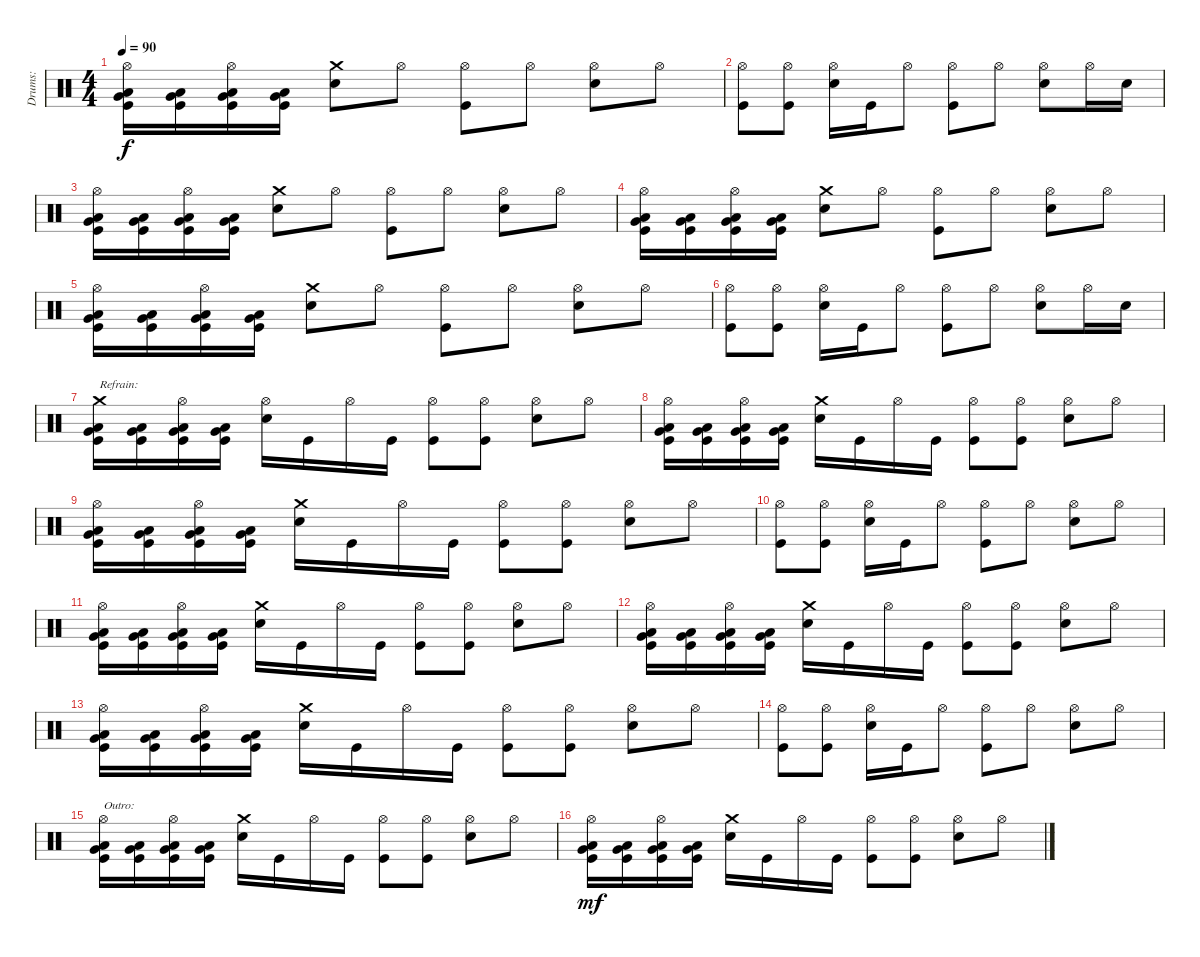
\track ("Drums:" "Drums:") {instrument percussion}
\staff {score}
\articulation defaults
\ts (4 4)
\tempo 90
\clef neutral
\ks c
("Hi-Hat (open)" "Very Low Tom (hit)" "Low Floor Tom (hit)" "Kick (hit)").16{dy f} ("Very Low Tom (hit)" "Low Floor Tom (hit)" "Kick (hit)").16 ("Hi-Hat (open)" "Very Low Tom (hit)" "Low Floor Tom (hit)" "Kick (hit)").16 ("Very Low Tom (hit)" "Low Floor Tom (hit)" "Kick (hit)").16 ("Crash medium (hit)" "Snare (hit) 2").8 "Hi-Hat (open)".8 ("Hi-Hat (open)" "Kick (hit)").8 "Hi-Hat (open)".8 ("Hi-Hat (open)" "Snare (hit) 2").8 "Hi-Hat (open)".8 |
("Hi-Hat (open)" "Kick (hit)").8 ("Hi-Hat (open)" "Kick (hit)").8 ("Hi-Hat (open)" "Snare (hit) 2").16 "Kick (hit)".16 "Hi-Hat (open)".8 ("Hi-Hat (open)" "Kick (hit)").8 "Hi-Hat (open)".8 ("Hi-Hat (open)" "Snare (hit) 2").8 "Hi-Hat (open)".16 "Snare (hit) 2".16 |
("Hi-Hat (open)" "Very Low Tom (hit)" "Low Floor Tom (hit)" "Kick (hit)").16 ("Very Low Tom (hit)" "Low Floor Tom (hit)" "Kick (hit)").16 ("Hi-Hat (open)" "Very Low Tom (hit)" "Low Floor Tom (hit)" "Kick (hit)").16 ("Very Low Tom (hit)" "Low Floor Tom (hit)" "Kick (hit)").16 ("Crash medium (hit)" "Snare (hit) 2").8 "Hi-Hat (open)".8 ("Hi-Hat (open)" "Kick (hit)").8 "Hi-Hat (open)".8 ("Hi-Hat (open)" "Snare (hit) 2").8 "Hi-Hat (open)".8 |
("Hi-Hat (open)" "Very Low Tom (hit)" "Low Floor Tom (hit)" "Kick (hit)").16 ("Very Low Tom (hit)" "Low Floor Tom (hit)" "Kick (hit)").16 ("Hi-Hat (open)" "Very Low Tom (hit)" "Low Floor Tom (hit)" "Kick (hit)").16 ("Very Low Tom (hit)" "Low Floor Tom (hit)" "Kick (hit)").16 ("Crash medium (hit)" "Snare (hit) 2").8 "Hi-Hat (open)".8 ("Hi-Hat (open)" "Kick (hit)").8 "Hi-Hat (open)".8 ("Hi-Hat (open)" "Snare (hit) 2").8 "Hi-Hat (open)".8 |
("Hi-Hat (open)" "Very Low Tom (hit)" "Low Floor Tom (hit)" "Kick (hit)").16 ("Very Low Tom (hit)" "Low Floor Tom (hit)" "Kick (hit)").16 ("Hi-Hat (open)" "Very Low Tom (hit)" "Low Floor Tom (hit)" "Kick (hit)").16 ("Very Low Tom (hit)" "Low Floor Tom (hit)" "Kick (hit)").16 ("Crash medium (hit)" "Snare (hit) 2").8 "Hi-Hat (open)".8 ("Hi-Hat (open)" "Kick (hit)").8 "Hi-Hat (open)".8 ("Hi-Hat (open)" "Snare (hit) 2").8 "Hi-Hat (open)".8 |
("Hi-Hat (open)" "Kick (hit)").8 ("Hi-Hat (open)" "Kick (hit)").8 ("Hi-Hat (open)" "Snare (hit) 2").16 "Kick (hit)".16 "Hi-Hat (open)".8 ("Hi-Hat (open)" "Kick (hit)").8 "Hi-Hat (open)".8 ("Hi-Hat (open)" "Snare (hit) 2").8 "Hi-Hat (open)".16 "Snare (hit) 2".16 |
("Crash medium (hit)" "Very Low Tom (hit)" "Low Floor Tom (hit)" "Kick (hit)").16{txt "Refrain:"} ("Very Low Tom (hit)" "Low Floor Tom (hit)" "Kick (hit)").16 ("Hi-Hat (open)" "Very Low Tom (hit)" "Low Floor Tom (hit)" "Kick (hit)").16 ("Very Low Tom (hit)" "Low Floor Tom (hit)" "Kick (hit)").16 ("Hi-Hat (open)" "Snare (hit) 2").16 "Kick (hit)".16 "Hi-Hat (open)".16 "Kick (hit)".16 ("Hi-Hat (open)" "Kick (hit)").8 ("Hi-Hat (open)" "Kick (hit)").8 ("Hi-Hat (open)" "Snare (hit) 2").8 "Hi-Hat (open)".8 |
("Hi-Hat (open)" "Very Low Tom (hit)" "Low Floor Tom (hit)" "Kick (hit)").16 ("Very Low Tom (hit)" "Low Floor Tom (hit)" "Kick (hit)").16 ("Hi-Hat (open)" "Very Low Tom (hit)" "Low Floor Tom (hit)" "Kick (hit)").16 ("Very Low Tom (hit)" "Low Floor Tom (hit)" "Kick (hit)").16 ("Crash medium (hit)" "Snare (hit) 2").16 "Kick (hit)".16 "Hi-Hat (open)".16 "Kick (hit)".16 ("Hi-Hat (open)" "Kick (hit)").8 ("Hi-Hat (open)" "Kick (hit)").8 ("Hi-Hat (open)" "Snare (hit) 2").8 "Hi-Hat (open)".8 |
("Hi-Hat (open)" "Very Low Tom (hit)" "Low Floor Tom (hit)" "Kick (hit)").16 ("Very Low Tom (hit)" "Low Floor Tom (hit)" "Kick (hit)").16 ("Hi-Hat (open)" "Very Low Tom (hit)" "Low Floor Tom (hit)" "Kick (hit)").16 ("Very Low Tom (hit)" "Low Floor Tom (hit)" "Kick (hit)").16 ("Crash medium (hit)" "Snare (hit) 2").16 "Kick (hit)".16 "Hi-Hat (open)".16 "Kick (hit)".16 ("Hi-Hat (open)" "Kick (hit)").8 ("Hi-Hat (open)" "Kick (hit)").8 ("Hi-Hat (open)" "Snare (hit) 2").8 "Hi-Hat (open)".8 |
("Hi-Hat (open)" "Kick (hit)").8 ("Hi-Hat (open)" "Kick (hit)").8 ("Hi-Hat (open)" "Snare (hit) 2").16 "Kick (hit)".16 "Hi-Hat (open)".8 ("Hi-Hat (open)" "Kick (hit)").8 "Hi-Hat (open)".8 ("Hi-Hat (open)" "Snare (hit) 2").8 "Hi-Hat (open)".8 |
("Hi-Hat (open)" "Very Low Tom (hit)" "Low Floor Tom (hit)" "Kick (hit)").16 ("Very Low Tom (hit)" "Low Floor Tom (hit)" "Kick (hit)").16 ("Hi-Hat (open)" "Very Low Tom (hit)" "Low Floor Tom (hit)" "Kick (hit)").16 ("Very Low Tom (hit)" "Low Floor Tom (hit)" "Kick (hit)").16 ("Crash medium (hit)" "Snare (hit) 2").16 "Kick (hit)".16 "Hi-Hat (open)".16 "Kick (hit)".16 ("Hi-Hat (open)" "Kick (hit)").8 ("Hi-Hat (open)" "Kick (hit)").8 ("Hi-Hat (open)" "Snare (hit) 2").8 "Hi-Hat (open)".8 |
("Hi-Hat (open)" "Very Low Tom (hit)" "Low Floor Tom (hit)" "Kick (hit)").16 ("Very Low Tom (hit)" "Low Floor Tom (hit)" "Kick (hit)").16 ("Hi-Hat (open)" "Very Low Tom (hit)" "Low Floor Tom (hit)" "Kick (hit)").16 ("Very Low Tom (hit)" "Low Floor Tom (hit)" "Kick (hit)").16 ("Crash medium (hit)" "Snare (hit) 2").16 "Kick (hit)".16 "Hi-Hat (open)".16 "Kick (hit)".16 ("Hi-Hat (open)" "Kick (hit)").8 ("Hi-Hat (open)" "Kick (hit)").8 ("Hi-Hat (open)" "Snare (hit) 2").8 "Hi-Hat (open)".8 |
("Hi-Hat (open)" "Very Low Tom (hit)" "Low Floor Tom (hit)" "Kick (hit)").16 ("Very Low Tom (hit)" "Low Floor Tom (hit)" "Kick (hit)").16 ("Hi-Hat (open)" "Very Low Tom (hit)" "Low Floor Tom (hit)" "Kick (hit)").16 ("Very Low Tom (hit)" "Low Floor Tom (hit)" "Kick (hit)").16 ("Crash medium (hit)" "Snare (hit) 2").16 "Kick (hit)".16 "Hi-Hat (open)".16 "Kick (hit)".16 ("Hi-Hat (open)" "Kick (hit)").8 ("Hi-Hat (open)" "Kick (hit)").8 ("Hi-Hat (open)" "Snare (hit) 2").8 "Hi-Hat (open)".8 |
("Hi-Hat (open)" "Kick (hit)").8 ("Hi-Hat (open)" "Kick (hit)").8 ("Hi-Hat (open)" "Snare (hit) 2").16 "Kick (hit)".16 "Hi-Hat (open)".8 ("Hi-Hat (open)" "Kick (hit)").8 "Hi-Hat (open)".8 ("Hi-Hat (open)" "Snare (hit) 2").8 "Hi-Hat (open)".8 |
("Hi-Hat (open)" "Very Low Tom (hit)" "Low Floor Tom (hit)" "Kick (hit)").16{txt "Outro:"} ("Very Low Tom (hit)" "Low Floor Tom (hit)" "Kick (hit)").16 ("Hi-Hat (open)" "Very Low Tom (hit)" "Low Floor Tom (hit)" "Kick (hit)").16 ("Very Low Tom (hit)" "Low Floor Tom (hit)" "Kick (hit)").16 ("Crash medium (hit)" "Snare (hit) 2").16 "Kick (hit)".16 "Hi-Hat (open)".16 "Kick (hit)".16 ("Hi-Hat (open)" "Kick (hit)").8 ("Hi-Hat (open)" "Kick (hit)").8 ("Hi-Hat (open)" "Snare (hit) 2").8 "Hi-Hat (open)".8 |
("Hi-Hat (open)" "Very Low Tom (hit)" "Low Floor Tom (hit)" "Kick (hit)").16{dy mf} ("Very Low Tom (hit)" "Low Floor Tom (hit)" "Kick (hit)").16 ("Hi-Hat (open)" "Very Low Tom (hit)" "Low Floor Tom (hit)" "Kick (hit)").16 ("Very Low Tom (hit)" "Low Floor Tom (hit)" "Kick (hit)").16 ("Crash medium (hit)" "Snare (hit) 2").16 "Kick (hit)".16 "Hi-Hat (open)".16 "Kick (hit)".16 ("Hi-Hat (open)" "Kick (hit)").8 ("Hi-Hat (open)" "Kick (hit)").8 ("Hi-Hat (open)" "Snare (hit) 2").8 "Hi-Hat (open)".8
